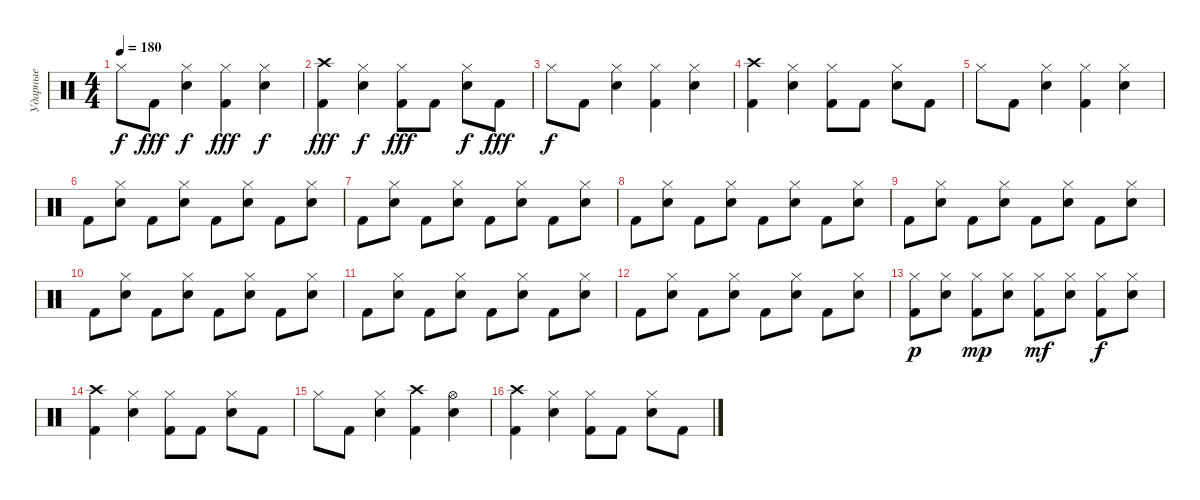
\track ("Ударные" "Ударные") {instrument percussion}
\staff {score}
\articulation defaults
\ts (4 4)
\tempo 180
\clef neutral
\ks c "Hi-Hat (closed)".8{dy f} "Kick (hit) 2".8{dy fff}
("Electric Snare (hit)" "Hi-Hat (closed)").4{dy f} ("Kick (hit) 2" "Hi-Hat (closed)").4{dy fff} ("Electric Snare (hit)" "Hi-Hat (closed)").4{dy f} |
("Kick (hit) 2" "Crash high (hit)").4{dy fff} ("Electric Snare (hit)" "Hi-Hat (closed)").4{dy f} ("Kick (hit) 2" "Hi-Hat (closed)").8{dy fff} "Kick (hit) 2".8 ("Electric Snare (hit)" "Hi-Hat (closed)").8{dy f} "Kick (hit) 2".8{dy fff} |
"Hi-Hat (closed)".8{dy f} "Kick (hit) 2".8 ("Electric Snare (hit)" "Hi-Hat (closed)").4 ("Kick (hit) 2" "Hi-Hat (closed)").4 ("Electric Snare (hit)" "Hi-Hat (closed)").4 |
("Kick (hit) 2" "Crash high (hit)").4 ("Electric Snare (hit)" "Hi-Hat (closed)").4 ("Kick (hit) 2" "Hi-Hat (closed)").8 "Kick (hit) 2".8 ("Electric Snare (hit)" "Hi-Hat (closed)").8 "Kick (hit) 2".8 |
"Hi-Hat (closed)".8 "Kick (hit) 2".8 ("Electric Snare (hit)" "Hi-Hat (closed)").4 ("Kick (hit) 2" "Hi-Hat (closed)").4 ("Electric Snare (hit)" "Hi-Hat (closed)").4 |
"Kick (hit) 2".8 ("Electric Snare (hit)" "Hi-Hat (closed)").8 "Kick (hit) 2".8 ("Electric Snare (hit)" "Hi-Hat (closed)").8 "Kick (hit) 2".8 ("Electric Snare (hit)" "Hi-Hat (closed)").8 "Kick (hit) 2".8 ("Electric Snare (hit)" "Hi-Hat (closed)").8 |
"Kick (hit) 2".8 ("Electric Snare (hit)" "Hi-Hat (closed)").8 "Kick (hit) 2".8 ("Electric Snare (hit)" "Hi-Hat (closed)").8 "Kick (hit) 2".8 ("Electric Snare (hit)" "Hi-Hat (closed)").8 "Kick (hit) 2".8 ("Electric Snare (hit)" "Hi-Hat (closed)").8 |
"Kick (hit) 2".8 ("Electric Snare (hit)" "Hi-Hat (closed)").8 "Kick (hit) 2".8 ("Electric Snare (hit)" "Hi-Hat (closed)").8 "Kick (hit) 2".8 ("Electric Snare (hit)" "Hi-Hat (closed)").8 "Kick (hit) 2".8 ("Electric Snare (hit)" "Hi-Hat (closed)").8 |
"Kick (hit) 2".8 ("Electric Snare (hit)" "Hi-Hat (closed)").8 "Kick (hit) 2".8 ("Electric Snare (hit)" "Hi-Hat (closed)").8 "Kick (hit) 2".8 ("Electric Snare (hit)" "Hi-Hat (closed)").8 "Kick (hit) 2".8 ("Electric Snare (hit)" "Hi-Hat (closed)").8 |
"Kick (hit) 2".8 ("Electric Snare (hit)" "Hi-Hat (closed)").8 "Kick (hit) 2".8 ("Electric Snare (hit)" "Hi-Hat (closed)").8 "Kick (hit) 2".8 ("Electric Snare (hit)" "Hi-Hat (closed)").8 "Kick (hit) 2".8 ("Electric Snare (hit)" "Hi-Hat (closed)").8 |
"Kick (hit) 2".8 ("Electric Snare (hit)" "Hi-Hat (closed)").8 "Kick (hit) 2".8 ("Electric Snare (hit)" "Hi-Hat (closed)").8 "Kick (hit) 2".8 ("Electric Snare (hit)" "Hi-Hat (closed)").8 "Kick (hit) 2".8 ("Electric Snare (hit)" "Hi-Hat (closed)").8 |
"Kick (hit) 2".8 ("Electric Snare (hit)" "Hi-Hat (closed)").8 "Kick (hit) 2".8 ("Electric Snare (hit)" "Hi-Hat (closed)").8 "Kick (hit) 2".8 ("Electric Snare (hit)" "Hi-Hat (closed)").8 "Kick (hit) 2".8 ("Electric Snare (hit)" "Hi-Hat (closed)").8 |
("Kick (hit) 2" "Hi-Hat (closed)").8{dy p} ("Electric Snare (hit)" "Hi-Hat (closed)").8 ("Kick (hit) 2" "Hi-Hat (closed)").8{dy mp} ("Electric Snare (hit)" "Hi-Hat (closed)").8 ("Kick (hit) 2" "Hi-Hat (closed)").8{dy mf} ("Electric Snare (hit)" "Hi-Hat (closed)").8 ("Kick (hit) 2" "Hi-Hat (closed)").8{dy f} ("Electric Snare (hit)" "Hi-Hat (closed)").8 |
("Kick (hit) 2" "Crash high (hit)").4 ("Electric Snare (hit)" "Hi-Hat (closed)").4 ("Kick (hit) 2" "Hi-Hat (closed)").8 "Kick (hit) 2".8 ("Electric Snare (hit)" "Hi-Hat (closed)").8 "Kick (hit) 2".8 |
"Hi-Hat (closed)".8 "Kick (hit) 2".8 ("Electric Snare (hit)" "Hi-Hat (closed)").4 ("Kick (hit) 2" "Crash high (hit)").4 ("Electric Snare (hit)" "Hi-Hat (open)").4 |
("Kick (hit) 2" "Crash high (hit)").4 ("Electric Snare (hit)" "Hi-Hat (closed)").4 ("Kick (hit) 2" "Hi-Hat (closed)").8 "Kick (hit) 2".8 ("Electric Snare (hit)" "Hi-Hat (closed)").8 "Kick (hit) 2".8
